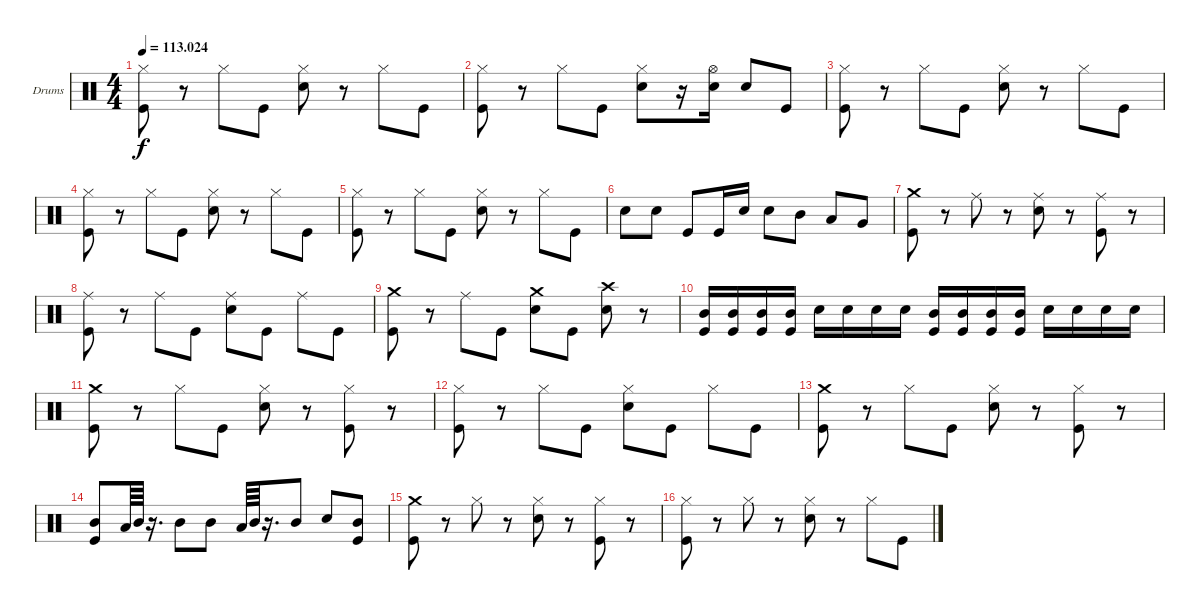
\bracketExtendMode groupsimilarinstruments
\firstSystemTrackNameOrientation horizontal
\otherSystemsTrackNameOrientation horizontal
\track ("Ударные (Кривенков Д)" "Drums") {instrument percussion}
\staff {score}
\articulation defaults
\ts (4 4)
\tempo
113.024
\accidentals auto
\clef neutral
\ottava regular
\simile none
\ks c
("Hi-Hat (closed)" "Kick (hit)").8{dy f} r.8 "Hi-Hat (closed)".8 "Kick (hit)".8 ("Hi-Hat (closed)" "Snare (hit) 2").8 r.8 "Hi-Hat (closed)".8 "Kick (hit)".8 |
("Hi-Hat (closed)" "Kick (hit)").8 r.8 "Hi-Hat (closed)".8 "Kick (hit)".8 ("Hi-Hat (closed)" "Snare (hit) 2").8 r.16 ("Hi-Hat (open)" "Snare (hit) 2").16 "Snare (hit) 2".8 "Kick (hit)".8 |
("Hi-Hat (closed)" "Kick (hit)").8 r.8 "Hi-Hat (closed)".8 "Kick (hit)".8 ("Hi-Hat (closed)" "Snare (hit) 2").8 r.8 "Hi-Hat (closed)".8 "Kick (hit)".8 |
("Hi-Hat (closed)" "Kick (hit)").8 r.8 "Hi-Hat (closed)".8 "Kick (hit)".8 ("Hi-Hat (closed)" "Snare (hit) 2").8 r.8 "Hi-Hat (closed)".8 "Kick (hit)".8 |
("Hi-Hat (closed)" "Kick (hit)").8 r.8 "Hi-Hat (closed)".8 "Kick (hit)".8 ("Hi-Hat (closed)" "Snare (hit) 2").8 r.8 "Hi-Hat (closed)".8 "Kick (hit)".8 |
"Snare (hit) 2".8 "Snare (hit) 2".8 "Kick (hit)".8 "Kick (hit)".16 "Snare (hit) 2".16 "Snare (hit) 2".8 "Mid Tom (hit)".8 "Low Tom (hit)".8 "Very Low Tom (hit)".8 |
("Crash medium (hit)" "Kick (hit)").8 r.8 "Ride (middle)".8 r.8 ("Ride (middle)" "Snare (hit) 2").8 r.8 ("Ride (middle)" "Kick (hit)").8 r.8 |
("Ride (middle)" "Kick (hit)").8 r.8 "Ride (middle)".8 "Kick (hit)".8 ("Ride (middle)" "Snare (hit) 2").8 "Kick (hit)".8 "Ride (middle)".8 "Kick (hit)".8 |
("Crash medium (hit)" "Kick (hit)").8 r.8 "Ride (middle)".8 "Kick (hit)".8 ("Crash medium (hit)" "Snare (hit) 2").8 "Kick (hit)".8 ("Crash high (hit)" "Snare (hit) 2").8 r.8 |
("Mid Tom (hit)" "Kick (hit)").16 ("Mid Tom (hit)" "Kick (hit)").16 ("Mid Tom (hit)" "Kick (hit)").16 ("Mid Tom (hit)" "Kick (hit)").16 "Snare (hit) 2".16 "Snare (hit) 2".16 "Snare (hit) 2".16 "Snare (hit) 2".16 ("Mid Tom (hit)" "Kick (hit)").16 ("Mid Tom (hit)" "Kick (hit)").16 ("Mid Tom (hit)" "Kick (hit)").16 ("Mid Tom (hit)" "Kick (hit)").16 "Snare (hit) 2".16 "Snare (hit) 2".16 "Snare (hit) 2".16 "Snare (hit) 2".16 |
("Crash medium (hit)" "Kick (hit)").8 r.8 "Hi-Hat (closed)".8 "Kick (hit)".8 ("Hi-Hat (closed)" "Snare (hit) 2").8 r.8 ("Hi-Hat (closed)" "Kick (hit)").8 r.8 |
("Hi-Hat (closed)" "Kick (hit)").8 r.8 "Hi-Hat (closed)".8 "Kick (hit)".8 ("Hi-Hat (closed)" "Snare (hit) 2").8 "Kick (hit)".8 "Hi-Hat (closed)".8 "Kick (hit)".8 |
("Crash medium (hit)" "Kick (hit)").8 r.8 "Hi-Hat (closed)".8 "Kick (hit)".8 ("Hi-Hat (closed)" "Snare (hit) 2").8 r.8 ("Hi-Hat (closed)" "Kick (hit)").8 r.8 |
("Mid Tom (hit)" "Kick (hit)").8 "Low Tom (hit)".64 "Mid Tom (hit)".64 r.16{d} "Mid Tom (hit)".8 "Mid Tom (hit)".8 "Low Tom (hit)".64 "Mid Tom (hit)".64 r.16{d} "Mid Tom (hit)".8 "Snare (hit) 2".8 ("Mid Tom (hit)" "Kick (hit)").8 |
("Crash medium (hit)" "Kick (hit)").8 r.8 "Hi-Hat (closed)".8 r.8 ("Hi-Hat (closed)" "Snare (hit) 2").8 r.8 ("Hi-Hat (closed)" "Kick (hit)").8 r.8 |
("Hi-Hat (closed)" "Kick (hit)").8 r.8 "Hi-Hat (closed)".8 r.8 ("Hi-Hat (closed)" "Snare (hit) 2").8 r.8 "Hi-Hat (closed)".8 "Kick (hit)".8
